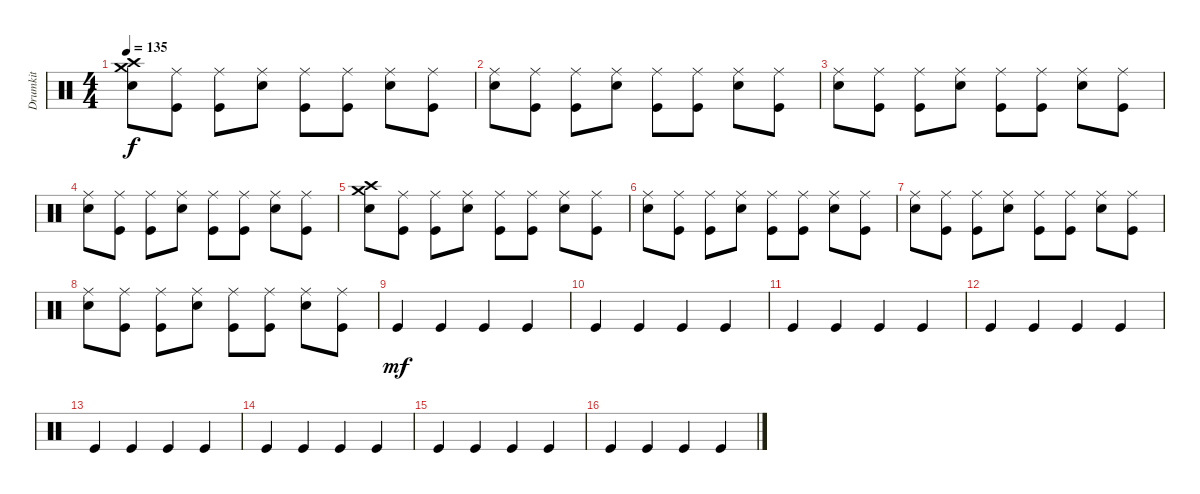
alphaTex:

\track ("Drumkit" "Drumkit") {instrument percussion}
\staff {score}
\articulation defaults
\ts (4 4)
\tempo 135
\clef neutral
\ks c
("Crash medium (hit)" "Crash high (hit)" "Snare (hit) 2").8{dy f} ("Ride (middle)" "Kick (hit)").8 ("Ride (middle)" "Kick (hit)").8 ("Ride (middle)" "Snare (hit) 2").8 ("Ride (middle)" "Kick (hit)").8 ("Ride (middle)" "Kick (hit)").8 ("Ride (middle)" "Snare (hit) 2").8 ("Ride (middle)" "Kick (hit)").8 |
("Ride (middle)" "Snare (hit) 2").8 ("Ride (middle)" "Kick (hit)").8 ("Ride (middle)" "Kick (hit)").8 ("Ride (middle)" "Snare (hit) 2").8 ("Ride (middle)" "Kick (hit)").8 ("Ride (middle)" "Kick (hit)").8 ("Ride (middle)" "Snare (hit) 2").8 ("Ride (middle)" "Kick (hit)").8 |
("Ride (middle)" "Snare (hit) 2").8 ("Ride (middle)" "Kick (hit)").8 ("Ride (middle)" "Kick (hit)").8 ("Ride (middle)" "Snare (hit) 2").8 ("Ride (middle)" "Kick (hit)").8 ("Ride (middle)" "Kick (hit)").8 ("Ride (middle)" "Snare (hit) 2").8 ("Ride (middle)" "Kick (hit)").8 |
("Ride (middle)" "Snare (hit) 2").8 ("Ride (middle)" "Kick (hit)").8 ("Ride (middle)" "Kick (hit)").8 ("Ride (middle)" "Snare (hit) 2").8 ("Ride (middle)" "Kick (hit)").8 ("Ride (middle)" "Kick (hit)").8 ("Ride (middle)" "Snare (hit) 2").8 ("Ride (middle)" "Kick (hit)").8 |
("Crash medium (hit)" "Crash high (hit)" "Snare (hit) 2").8 ("Ride (middle)" "Kick (hit)").8 ("Ride (middle)" "Kick (hit)").8 ("Ride (middle)" "Snare (hit) 2").8 ("Ride (middle)" "Kick (hit)").8 ("Ride (middle)" "Kick (hit)").8 ("Ride (middle)" "Snare (hit) 2").8 ("Ride (middle)" "Kick (hit)").8 |
("Ride (middle)" "Snare (hit) 2").8 ("Ride (middle)" "Kick (hit)").8 ("Ride (middle)" "Kick (hit)").8 ("Ride (middle)" "Snare (hit) 2").8 ("Ride (middle)" "Kick (hit)").8 ("Ride (middle)" "Kick (hit)").8 ("Ride (middle)" "Snare (hit) 2").8 ("Ride (middle)" "Kick (hit)").8 |
("Ride (middle)" "Snare (hit) 2").8 ("Ride (middle)" "Kick (hit)").8 ("Ride (middle)" "Kick (hit)").8 ("Ride (middle)" "Snare (hit) 2").8 ("Ride (middle)" "Kick (hit)").8 ("Ride (middle)" "Kick (hit)").8 ("Ride (middle)" "Snare (hit) 2").8 ("Ride (middle)" "Kick (hit)").8 |
("Ride (middle)" "Snare (hit) 2").8 ("Ride (middle)" "Kick (hit)").8 ("Ride (middle)" "Kick (hit)").8 ("Ride (middle)" "Snare (hit) 2").8 ("Ride (middle)" "Kick (hit)").8 ("Ride (middle)" "Kick (hit)").8 ("Ride (middle)" "Snare (hit) 2").8 ("Ride (middle)" "Kick (hit)").8 |
"Kick (hit)".4{dy mf} "Kick (hit)".4 "Kick (hit)".4 "Kick (hit)".4 |
"Kick (hit)".4 "Kick (hit)".4 "Kick (hit)".4 "Kick (hit)".4 |
"Kick (hit)".4 "Kick (hit)".4 "Kick (hit)".4 "Kick (hit)".4 |
"Kick (hit)".4 "Kick (hit)".4 "Kick (hit)".4 "Kick (hit)".4 |
"Kick (hit)".4 "Kick (hit)".4 "Kick (hit)".4 "Kick (hit)".4 |
"Kick (hit)".4 "Kick (hit)".4 "Kick (hit)".4 "Kick (hit)".4 |
"Kick (hit)".4 "Kick (hit)".4 "Kick (hit)".4 "Kick (hit)".4 |
"Kick (hit)".4 "Kick (hit)".4 "Kick (hit)".4 "Kick (hit)".4
